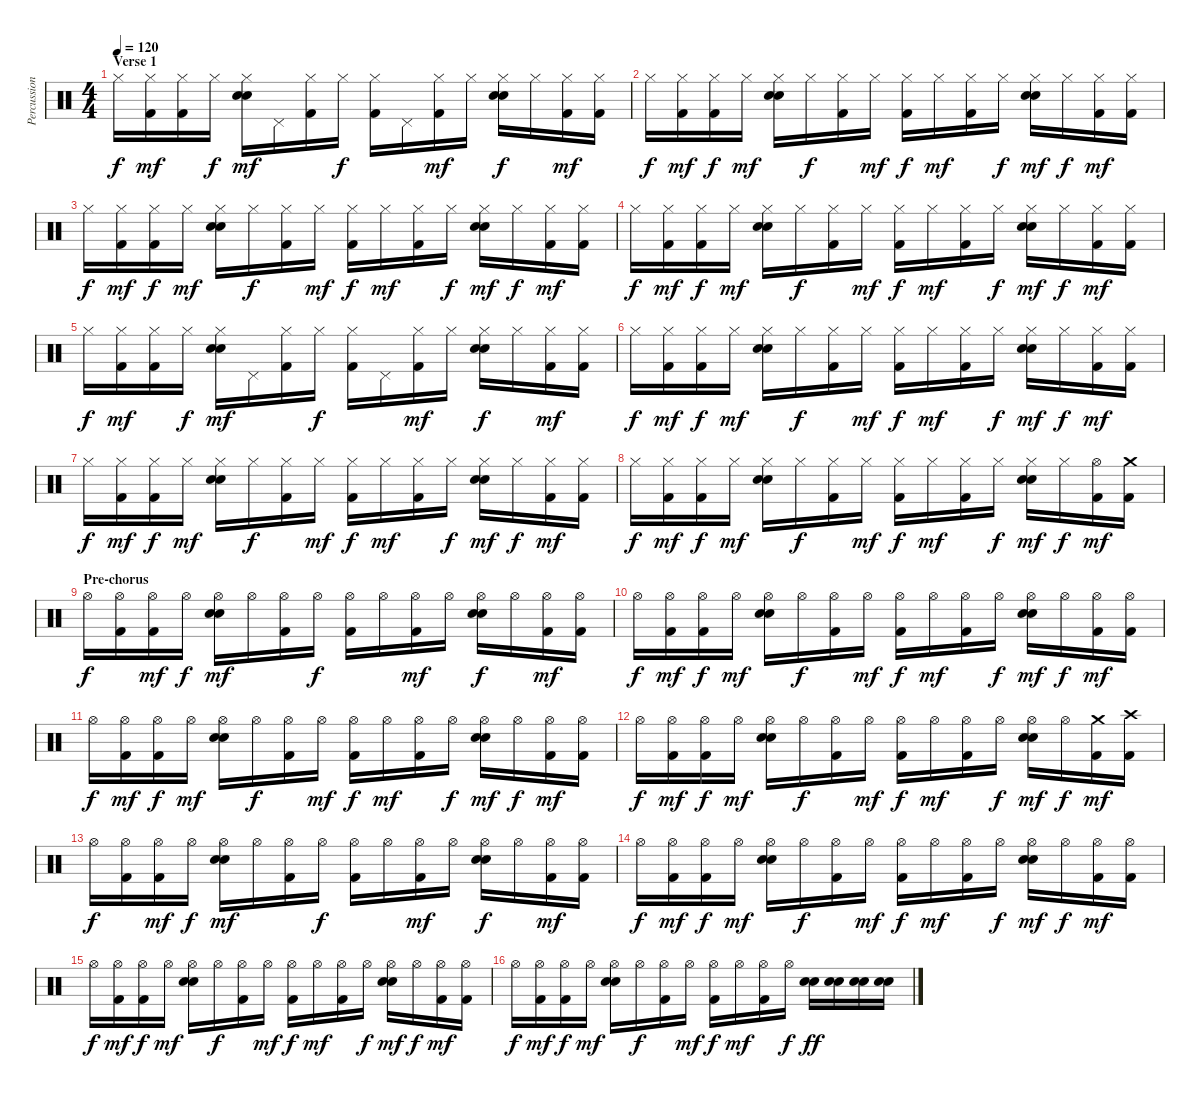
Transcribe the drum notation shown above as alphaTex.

\track ("Percussions" "Percussion") {instrument percussion}
\staff {score}
\articulation defaults
\ts (4 4)
\section ("" "Verse 1")
\tempo 120
\clef neutral
\ks c "Hi-Hat (closed)".16{dy f}
("Hi-Hat (closed)" "Kick (hit) 2").16{dy mf} ("Hi-Hat (closed)" "Kick (hit) 2").16 "Hi-Hat (closed)".16{dy f} ("Hi-Hat (closed)" "Snare (hit) 2" "Electric Snare (hit)").16{dy mf} "Pedal Hi-Hat (hit)".16 ("Hi-Hat (closed)" "Kick (hit) 2").16 "Hi-Hat (closed)".16{dy f} ("Hi-Hat (closed)" "Kick (hit) 2").16 "Pedal Hi-Hat (hit)".16 ("Hi-Hat (closed)" "Kick (hit) 2").16{dy mf} "Hi-Hat (closed)".16 ("Hi-Hat (closed)" "Snare (hit) 2" "Electric Snare (hit)").16{dy f} "Hi-Hat (closed)".16 ("Hi-Hat (closed)" "Kick (hit) 2").16{dy mf} ("Hi-Hat (closed)" "Kick (hit) 2").16 |
"Hi-Hat (closed)".16{dy f} ("Hi-Hat (closed)" "Kick (hit) 2").16{dy mf} ("Hi-Hat (closed)" "Kick (hit) 2").16{dy f} "Hi-Hat (closed)".16{dy mf} ("Hi-Hat (closed)" "Snare (hit) 2" "Electric Snare (hit)").16 "Hi-Hat (closed)".16{dy f} ("Hi-Hat (closed)" "Kick (hit) 2").16 "Hi-Hat (closed)".16{dy mf} ("Hi-Hat (closed)" "Kick (hit) 2").16{dy f} "Hi-Hat (closed)".16{dy mf} ("Hi-Hat (closed)" "Kick (hit) 2").16 "Hi-Hat (closed)".16{dy f} ("Hi-Hat (closed)" "Snare (hit) 2" "Electric Snare (hit)").16{dy mf} "Hi-Hat (closed)".16{dy f} ("Hi-Hat (closed)" "Kick (hit) 2").16{dy mf} ("Hi-Hat (closed)" "Kick (hit) 2").16 |
"Hi-Hat (closed)".16{dy f} ("Hi-Hat (closed)" "Kick (hit) 2").16{dy mf} ("Hi-Hat (closed)" "Kick (hit) 2").16{dy f} "Hi-Hat (closed)".16{dy mf} ("Hi-Hat (closed)" "Snare (hit) 2" "Electric Snare (hit)").16 "Hi-Hat (closed)".16{dy f} ("Hi-Hat (closed)" "Kick (hit) 2").16 "Hi-Hat (closed)".16{dy mf} ("Hi-Hat (closed)" "Kick (hit) 2").16{dy f} "Hi-Hat (closed)".16{dy mf} ("Hi-Hat (closed)" "Kick (hit) 2").16 "Hi-Hat (closed)".16{dy f} ("Hi-Hat (closed)" "Snare (hit) 2" "Electric Snare (hit)").16{dy mf} "Hi-Hat (closed)".16{dy f} ("Hi-Hat (closed)" "Kick (hit) 2").16{dy mf} ("Hi-Hat (closed)" "Kick (hit) 2").16 |
"Hi-Hat (closed)".16{dy f} ("Hi-Hat (closed)" "Kick (hit) 2").16{dy mf} ("Hi-Hat (closed)" "Kick (hit) 2").16{dy f} "Hi-Hat (closed)".16{dy mf} ("Hi-Hat (closed)" "Snare (hit) 2" "Electric Snare (hit)").16 "Hi-Hat (closed)".16{dy f} ("Hi-Hat (closed)" "Kick (hit) 2").16 "Hi-Hat (closed)".16{dy mf} ("Hi-Hat (closed)" "Kick (hit) 2").16{dy f} "Hi-Hat (closed)".16{dy mf} ("Hi-Hat (closed)" "Kick (hit) 2").16 "Hi-Hat (closed)".16{dy f} ("Hi-Hat (closed)" "Snare (hit) 2" "Electric Snare (hit)").16{dy mf} "Hi-Hat (closed)".16{dy f} ("Hi-Hat (closed)" "Kick (hit) 2").16{dy mf} ("Hi-Hat (closed)" "Kick (hit) 2").16 |
"Hi-Hat (closed)".16{dy f} ("Hi-Hat (closed)" "Kick (hit) 2").16{dy mf} ("Hi-Hat (closed)" "Kick (hit) 2").16 "Hi-Hat (closed)".16{dy f} ("Hi-Hat (closed)" "Snare (hit) 2" "Electric Snare (hit)").16{dy mf} "Pedal Hi-Hat (hit)".16 ("Hi-Hat (closed)" "Kick (hit) 2").16 "Hi-Hat (closed)".16{dy f} ("Hi-Hat (closed)" "Kick (hit) 2").16 "Pedal Hi-Hat (hit)".16 ("Hi-Hat (closed)" "Kick (hit) 2").16{dy mf} "Hi-Hat (closed)".16 ("Hi-Hat (closed)" "Snare (hit) 2" "Electric Snare (hit)").16{dy f} "Hi-Hat (closed)".16 ("Hi-Hat (closed)" "Kick (hit) 2").16{dy mf} ("Hi-Hat (closed)" "Kick (hit) 2").16 |
"Hi-Hat (closed)".16{dy f} ("Hi-Hat (closed)" "Kick (hit) 2").16{dy mf} ("Hi-Hat (closed)" "Kick (hit) 2").16{dy f} "Hi-Hat (closed)".16{dy mf} ("Hi-Hat (closed)" "Snare (hit) 2" "Electric Snare (hit)").16 "Hi-Hat (closed)".16{dy f} ("Hi-Hat (closed)" "Kick (hit) 2").16 "Hi-Hat (closed)".16{dy mf} ("Hi-Hat (closed)" "Kick (hit) 2").16{dy f} "Hi-Hat (closed)".16{dy mf} ("Hi-Hat (closed)" "Kick (hit) 2").16 "Hi-Hat (closed)".16{dy f} ("Hi-Hat (closed)" "Snare (hit) 2" "Electric Snare (hit)").16{dy mf} "Hi-Hat (closed)".16{dy f} ("Hi-Hat (closed)" "Kick (hit) 2").16{dy mf} ("Hi-Hat (closed)" "Kick (hit) 2").16 |
"Hi-Hat (closed)".16{dy f} ("Hi-Hat (closed)" "Kick (hit) 2").16{dy mf} ("Hi-Hat (closed)" "Kick (hit) 2").16{dy f} "Hi-Hat (closed)".16{dy mf} ("Hi-Hat (closed)" "Snare (hit) 2" "Electric Snare (hit)").16 "Hi-Hat (closed)".16{dy f} ("Hi-Hat (closed)" "Kick (hit) 2").16 "Hi-Hat (closed)".16{dy mf} ("Hi-Hat (closed)" "Kick (hit) 2").16{dy f} "Hi-Hat (closed)".16{dy mf} ("Hi-Hat (closed)" "Kick (hit) 2").16 "Hi-Hat (closed)".16{dy f} ("Hi-Hat (closed)" "Snare (hit) 2" "Electric Snare (hit)").16{dy mf} "Hi-Hat (closed)".16{dy f} ("Hi-Hat (closed)" "Kick (hit) 2").16{dy mf} ("Hi-Hat (closed)" "Kick (hit) 2").16 |
"Hi-Hat (closed)".16{dy f} ("Hi-Hat (closed)" "Kick (hit) 2").16{dy mf} ("Hi-Hat (closed)" "Kick (hit) 2").16{dy f} "Hi-Hat (closed)".16{dy mf} ("Hi-Hat (closed)" "Snare (hit) 2" "Electric Snare (hit)").16 "Hi-Hat (closed)".16{dy f} ("Hi-Hat (closed)" "Kick (hit) 2").16 "Hi-Hat (closed)".16{dy mf} ("Hi-Hat (closed)" "Kick (hit) 2").16{dy f} "Hi-Hat (closed)".16{dy mf} ("Hi-Hat (closed)" "Kick (hit) 2").16 "Hi-Hat (closed)".16{dy f} ("Hi-Hat (closed)" "Snare (hit) 2" "Electric Snare (hit)").16{dy mf} "Hi-Hat (closed)".16{dy f} ("Hi-Hat (open)" "Kick (hit) 2").16{dy mf} ("Crash medium (hit)" "Kick (hit) 2").16 |
\section ("" "Pre-chorus")
"Hi-Hat (open)".16{dy f} ("Hi-Hat (open)" "Kick (hit) 2").16 ("Hi-Hat (open)" "Kick (hit) 2").16{dy mf} "Hi-Hat (open)".16{dy f} ("Hi-Hat (open)" "Snare (hit) 2" "Electric Snare (hit)").16{dy mf} "Hi-Hat (open)".16 ("Hi-Hat (open)" "Kick (hit) 2").16 "Hi-Hat (open)".16{dy f} ("Hi-Hat (open)" "Kick (hit) 2").16 "Hi-Hat (open)".16 ("Hi-Hat (open)" "Kick (hit) 2").16{dy mf} "Hi-Hat (open)".16 ("Hi-Hat (open)" "Snare (hit) 2" "Electric Snare (hit)").16{dy f} "Hi-Hat (open)".16 ("Hi-Hat (open)" "Kick (hit) 2").16{dy mf} ("Hi-Hat (open)" "Kick (hit) 2").16 |
"Hi-Hat (open)".16{dy f} ("Hi-Hat (open)" "Kick (hit) 2").16{dy mf} ("Hi-Hat (open)" "Kick (hit) 2").16{dy f} "Hi-Hat (open)".16{dy mf} ("Hi-Hat (open)" "Snare (hit) 2" "Electric Snare (hit)").16 "Hi-Hat (open)".16{dy f} ("Hi-Hat (open)" "Kick (hit) 2").16 "Hi-Hat (open)".16{dy mf} ("Hi-Hat (open)" "Kick (hit) 2").16{dy f} "Hi-Hat (open)".16{dy mf} ("Hi-Hat (open)" "Kick (hit) 2").16 "Hi-Hat (open)".16{dy f} ("Hi-Hat (open)" "Snare (hit) 2" "Electric Snare (hit)").16{dy mf} "Hi-Hat (open)".16{dy f} ("Hi-Hat (open)" "Kick (hit) 2").16{dy mf} ("Hi-Hat (open)" "Kick (hit) 2").16 |
"Hi-Hat (open)".16{dy f} ("Hi-Hat (open)" "Kick (hit) 2").16{dy mf} ("Hi-Hat (open)" "Kick (hit) 2").16{dy f} "Hi-Hat (open)".16{dy mf} ("Hi-Hat (open)" "Snare (hit) 2" "Electric Snare (hit)").16 "Hi-Hat (open)".16{dy f} ("Hi-Hat (open)" "Kick (hit) 2").16 "Hi-Hat (open)".16{dy mf} ("Hi-Hat (open)" "Kick (hit) 2").16{dy f} "Hi-Hat (open)".16{dy mf} ("Hi-Hat (open)" "Kick (hit) 2").16 "Hi-Hat (open)".16{dy f} ("Hi-Hat (open)" "Snare (hit) 2" "Electric Snare (hit)").16{dy mf} "Hi-Hat (open)".16{dy f} ("Hi-Hat (open)" "Kick (hit) 2").16{dy mf} ("Hi-Hat (open)" "Kick (hit) 2").16 |
"Hi-Hat (open)".16{dy f} ("Hi-Hat (open)" "Kick (hit) 2").16{dy mf} ("Hi-Hat (open)" "Kick (hit) 2").16{dy f} "Hi-Hat (open)".16{dy mf} ("Hi-Hat (open)" "Snare (hit) 2" "Electric Snare (hit)").16 "Hi-Hat (open)".16{dy f} ("Hi-Hat (open)" "Kick (hit) 2").16 "Hi-Hat (open)".16{dy mf} ("Hi-Hat (open)" "Kick (hit) 2").16{dy f} "Hi-Hat (open)".16{dy mf} ("Hi-Hat (open)" "Kick (hit) 2").16 "Hi-Hat (open)".16{dy f} ("Hi-Hat (open)" "Snare (hit) 2" "Electric Snare (hit)").16{dy mf} "Hi-Hat (open)".16{dy f} ("Crash medium (hit)" "Kick (hit) 2").16{dy mf} ("Crash high (hit)" "Kick (hit) 2").16 |
"Hi-Hat (open)".16{dy f} ("Hi-Hat (open)" "Kick (hit) 2").16 ("Hi-Hat (open)" "Kick (hit) 2").16{dy mf} "Hi-Hat (open)".16{dy f} ("Hi-Hat (open)" "Snare (hit) 2" "Electric Snare (hit)").16{dy mf} "Hi-Hat (open)".16 ("Hi-Hat (open)" "Kick (hit) 2").16 "Hi-Hat (open)".16{dy f} ("Hi-Hat (open)" "Kick (hit) 2").16 "Hi-Hat (open)".16 ("Hi-Hat (open)" "Kick (hit) 2").16{dy mf} "Hi-Hat (open)".16 ("Hi-Hat (open)" "Snare (hit) 2" "Electric Snare (hit)").16{dy f} "Hi-Hat (open)".16 ("Hi-Hat (open)" "Kick (hit) 2").16{dy mf} ("Hi-Hat (open)" "Kick (hit) 2").16 |
"Hi-Hat (open)".16{dy f} ("Hi-Hat (open)" "Kick (hit) 2").16{dy mf} ("Hi-Hat (open)" "Kick (hit) 2").16{dy f} "Hi-Hat (open)".16{dy mf} ("Hi-Hat (open)" "Snare (hit) 2" "Electric Snare (hit)").16 "Hi-Hat (open)".16{dy f} ("Hi-Hat (open)" "Kick (hit) 2").16 "Hi-Hat (open)".16{dy mf} ("Hi-Hat (open)" "Kick (hit) 2").16{dy f} "Hi-Hat (open)".16{dy mf} ("Hi-Hat (open)" "Kick (hit) 2").16 "Hi-Hat (open)".16{dy f} ("Hi-Hat (open)" "Snare (hit) 2" "Electric Snare (hit)").16{dy mf} "Hi-Hat (open)".16{dy f} ("Hi-Hat (open)" "Kick (hit) 2").16{dy mf} ("Hi-Hat (open)" "Kick (hit) 2").16 |
"Hi-Hat (open)".16{dy f} ("Hi-Hat (open)" "Kick (hit) 2").16{dy mf} ("Hi-Hat (open)" "Kick (hit) 2").16{dy f} "Hi-Hat (open)".16{dy mf} ("Hi-Hat (open)" "Snare (hit) 2" "Electric Snare (hit)").16 "Hi-Hat (open)".16{dy f} ("Hi-Hat (open)" "Kick (hit) 2").16 "Hi-Hat (open)".16{dy mf} ("Hi-Hat (open)" "Kick (hit) 2").16{dy f} "Hi-Hat (open)".16{dy mf} ("Hi-Hat (open)" "Kick (hit) 2").16 "Hi-Hat (open)".16{dy f} ("Hi-Hat (open)" "Snare (hit) 2" "Electric Snare (hit)").16{dy mf} "Hi-Hat (open)".16{dy f} ("Hi-Hat (open)" "Kick (hit) 2").16{dy mf} ("Hi-Hat (open)" "Kick (hit) 2").16 |
"Hi-Hat (open)".16{dy f} ("Hi-Hat (open)" "Kick (hit) 2").16{dy mf} ("Hi-Hat (open)" "Kick (hit) 2").16{dy f} "Hi-Hat (open)".16{dy mf} ("Hi-Hat (open)" "Snare (hit) 2" "Electric Snare (hit)").16 "Hi-Hat (open)".16{dy f} ("Hi-Hat (open)" "Kick (hit) 2").16 "Hi-Hat (open)".16{dy mf} ("Hi-Hat (open)" "Kick (hit) 2").16{dy f} "Hi-Hat (open)".16{dy mf} ("Hi-Hat (open)" "Kick (hit) 2").16 "Hi-Hat (open)".16{dy f} ("Snare (hit) 2" "Electric Snare (hit)").16{dy ff} ("Snare (hit) 2" "Electric Snare (hit)").16 ("Snare (hit) 2" "Electric Snare (hit)").16 ("Snare (hit) 2" "Electric Snare (hit)").16
